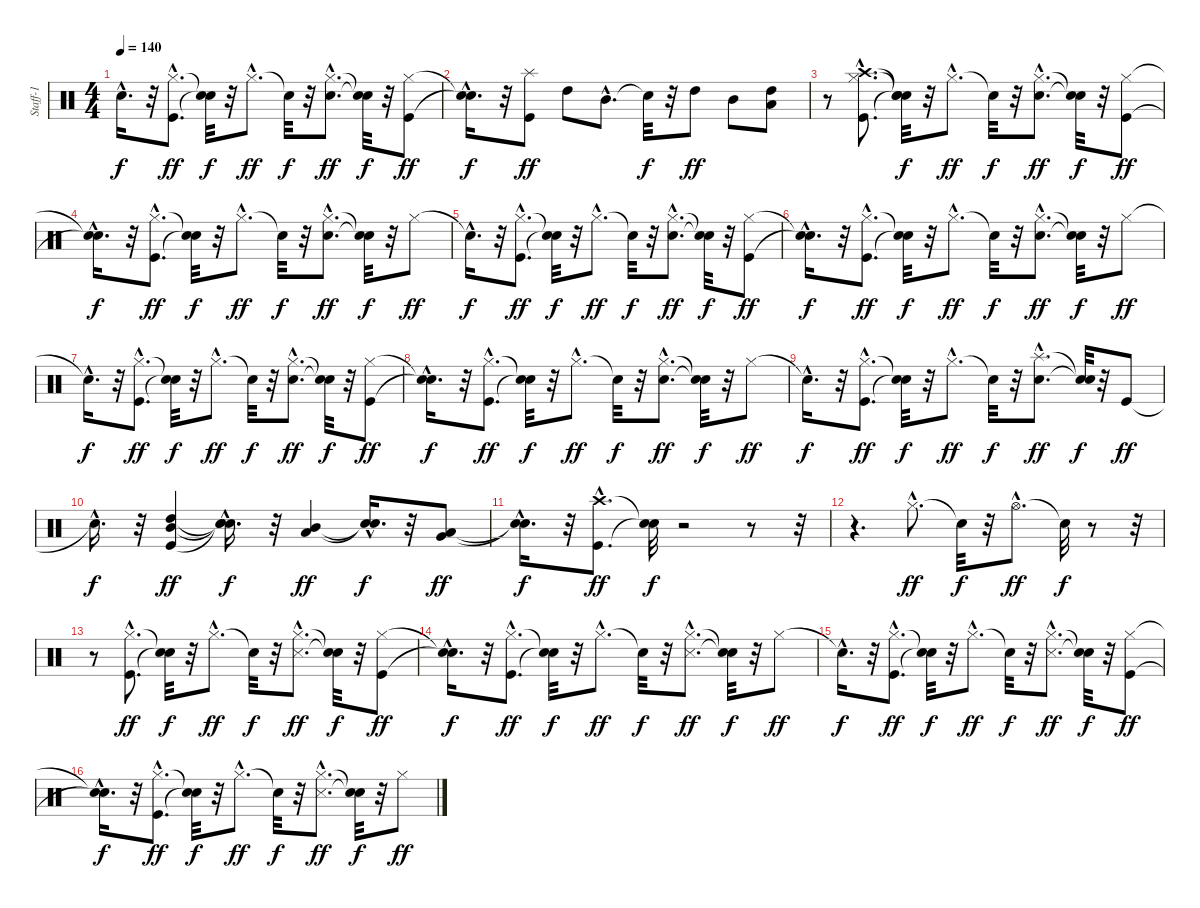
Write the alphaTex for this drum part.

\track ("Staff-1" "Staff-1") {instrument percussion}
\staff {score}
\articulation defaults
\ts (4 4)
\tempo 140
\clef neutral
\ks c "Snare (hit)"{hac t}.16{d dy f}
r.32 ("Kick (hit)"{hac} "Hi-Hat (closed)"{hac}).8{d dy ff} ("Snare (hit)"{t} "Snare (hit)"{t}).32{dy f} r.32 "Hi-Hat (closed)"{hac}.8{d dy ff} "Snare (hit)"{t}.32{dy f} r.32 ("Snare (hit) 2"{hac} "Hi-Hat (closed)"{hac}).8{d dy ff} ("Snare (hit)"{t} "Snare (hit)"{t}).32{dy f} r.32 ("Kick (hit)" "Hi-Hat (closed)").8{dy ff} |
("Snare (hit)"{hac t} "Snare (hit)"{hac t}).16{d dy f} r.32 ("Kick (hit)" "Splash (hit)").8{dy ff} "High Tom (hit)".8 "Mid Tom (hit)"{hac}.8{d} "Snare (hit)"{t}.32{dy f} r.32 "High Tom (hit)".8{dy ff} "Mid Tom (hit)".8 ("Low Tom (hit)" "High Tom (hit)").8 |
r.8 ("Kick (hit)"{hac} "Hi-Hat (closed)"{hac} "Crash high (hit)"{hac}).8{d} ("Snare (hit)"{t} "Snare (hit)"{t} "Snare (hit)"{t}).32{dy f} r.32 "Hi-Hat (closed)"{hac}.8{d dy ff} "Snare (hit)"{t}.32{dy f} r.32 ("Snare (hit) 2"{hac} "Hi-Hat (closed)"{hac}).8{d dy ff} ("Snare (hit)"{t} "Snare (hit)"{t}).32{dy f} r.32 ("Kick (hit)" "Hi-Hat (closed)").8{dy ff} |
("Snare (hit)"{hac t} "Snare (hit)"{hac t}).16{d dy f} r.32 ("Kick (hit)"{hac} "Hi-Hat (closed)"{hac}).8{d dy ff} ("Snare (hit)"{t} "Snare (hit)"{t}).32{dy f} r.32 "Hi-Hat (closed)"{hac}.8{d dy ff} "Snare (hit)"{t}.32{dy f} r.32 ("Snare (hit) 2"{hac} "Hi-Hat (closed)"{hac}).8{d dy ff} ("Snare (hit)"{t} "Snare (hit)"{t}).32{dy f} r.32 "Hi-Hat (closed)".8{dy ff} |
"Snare (hit)"{hac t}.16{d dy f} r.32 ("Kick (hit)"{hac} "Hi-Hat (closed)"{hac}).8{d dy ff} ("Snare (hit)"{t} "Snare (hit)"{t}).32{dy f} r.32 "Hi-Hat (closed)"{hac}.8{d dy ff} "Snare (hit)"{t}.32{dy f} r.32 ("Snare (hit) 2"{hac} "Hi-Hat (closed)"{hac}).8{d dy ff} ("Snare (hit)"{t} "Snare (hit)"{t}).32{dy f} r.32 ("Kick (hit)" "Hi-Hat (closed)").8{dy ff} |
("Snare (hit)"{hac t} "Snare (hit)"{hac t}).16{d dy f} r.32 ("Kick (hit)"{hac} "Hi-Hat (closed)"{hac}).8{d dy ff} ("Snare (hit)"{t} "Snare (hit)"{t}).32{dy f} r.32 "Hi-Hat (closed)"{hac}.8{d dy ff} "Snare (hit)"{t}.32{dy f} r.32 ("Snare (hit) 2"{hac} "Hi-Hat (closed)"{hac}).8{d dy ff} ("Snare (hit)"{t} "Snare (hit)"{t}).32{dy f} r.32 "Hi-Hat (closed)".8{dy ff} |
"Snare (hit)"{hac t}.16{d dy f} r.32 ("Kick (hit)"{hac} "Hi-Hat (closed)"{hac}).8{d dy ff} ("Snare (hit)"{t} "Snare (hit)"{t}).32{dy f} r.32 "Hi-Hat (closed)"{hac}.8{d dy ff} "Snare (hit)"{t}.32{dy f} r.32 ("Snare (hit) 2"{hac} "Hi-Hat (closed)"{hac}).8{d dy ff} ("Snare (hit)"{t} "Snare (hit)"{t}).32{dy f} r.32 ("Kick (hit)" "Hi-Hat (closed)").8{dy ff} |
("Snare (hit)"{hac t} "Snare (hit)"{hac t}).16{d dy f} r.32 ("Kick (hit)"{hac} "Hi-Hat (closed)"{hac}).8{d dy ff} ("Snare (hit)"{t} "Snare (hit)"{t}).32{dy f} r.32 "Hi-Hat (closed)"{hac}.8{d dy ff} "Snare (hit)"{t}.32{dy f} r.32 ("Snare (hit) 2"{hac} "Hi-Hat (closed)"{hac}).8{d dy ff} ("Snare (hit)"{t} "Snare (hit)"{t}).32{dy f} r.32 "Hi-Hat (closed)".8{dy ff} |
"Snare (hit)"{hac t}.16{d dy f} r.32 ("Kick (hit)"{hac} "Hi-Hat (closed)"{hac}).8{d dy ff} ("Snare (hit)"{t} "Snare (hit)"{t}).32{dy f} r.32 "Hi-Hat (closed)"{hac}.8{d dy ff} "Snare (hit)"{t}.32{dy f} r.32 ("Snare (hit) 2"{hac} "Splash (hit)"{hac}).8{d dy ff} ("Snare (hit)"{t} "Snare (hit)"{t}).32{dy f} r.32 "Kick (hit)".8{dy ff} |
"Snare (hit)"{hac t}.16{d dy f} r.32 ("Kick (hit)" "Mid Tom (hit)" "High Tom (hit)").4{dy ff} ("Snare (hit)"{hac t} "Snare (hit)"{hac t} "Snare (hit)"{hac t}).16{d dy f} r.32 ("Low Tom (hit)" "Mid Tom (hit)").4{dy ff} ("Snare (hit)"{hac t} "Snare (hit)"{hac t}).16{d dy f} r.32 ("Low Floor Tom (hit)" "Very Low Tom (hit)").8{dy ff} |
("Snare (hit)"{hac t} "Snare (hit)"{hac t}).16{d dy f} r.32 ("Kick (hit)"{hac} "Crash high (hit)"{hac}).8{d dy ff} ("Snare (hit)"{t} "Snare (hit)"{t}).32{dy f} r.2 r.8 r.32 |
r.4{d} "Hi-Hat (closed)"{hac}.8{d dy ff} "Snare (hit)"{t}.32{dy f} r.32 "Hi-Hat (open)"{hac}.8{d dy ff} "Snare (hit)"{t}.32{dy f} r.8 r.32 |
r.8 ("Kick (hit)"{hac} "Hi-Hat (closed)"{hac}).8{d dy ff} ("Snare (hit)"{t} "Snare (hit)"{t}).32{dy f} r.32 "Hi-Hat (closed)"{hac}.8{d dy ff} "Snare (hit)"{t}.32{dy f} r.32 ("Snare (side stick) 3"{hac} "Hi-Hat (closed)"{hac}).8{d dy ff} ("Snare (hit)"{t} "Snare (hit)"{t}).32{dy f} r.32 ("Kick (hit)" "Hi-Hat (closed)").8{dy ff} |
("Snare (hit)"{hac t} "Snare (hit)"{hac t}).16{d dy f} r.32 ("Kick (hit)"{hac} "Hi-Hat (closed)"{hac}).8{d dy ff} ("Snare (hit)"{t} "Snare (hit)"{t}).32{dy f} r.32 "Hi-Hat (closed)"{hac}.8{d dy ff} "Snare (hit)"{t}.32{dy f} r.32 ("Snare (side stick) 3"{hac} "Hi-Hat (closed)"{hac}).8{d dy ff} ("Snare (hit)"{t} "Snare (hit)"{t}).32{dy f} r.32 "Hi-Hat (closed)".8{dy ff} |
"Snare (hit)"{hac t}.16{d dy f} r.32 ("Kick (hit)"{hac} "Hi-Hat (closed)"{hac}).8{d dy ff} ("Snare (hit)"{t} "Snare (hit)"{t}).32{dy f} r.32 "Hi-Hat (closed)"{hac}.8{d dy ff} "Snare (hit)"{t}.32{dy f} r.32 ("Snare (side stick) 3"{hac} "Hi-Hat (closed)"{hac}).8{d dy ff} ("Snare (hit)"{t} "Snare (hit)"{t}).32{dy f} r.32 ("Kick (hit)" "Hi-Hat (closed)").8{dy ff} |
("Snare (hit)"{hac t} "Snare (hit)"{hac t}).16{d dy f} r.32 ("Kick (hit)"{hac} "Hi-Hat (closed)"{hac}).8{d dy ff} ("Snare (hit)"{t} "Snare (hit)"{t}).32{dy f} r.32 "Hi-Hat (closed)"{hac}.8{d dy ff} "Snare (hit)"{t}.32{dy f} r.32 ("Snare (side stick) 3"{hac} "Hi-Hat (closed)"{hac}).8{d dy ff} ("Snare (hit)"{t} "Snare (hit)"{t}).32{dy f} r.32 "Hi-Hat (closed)".8{dy ff}
